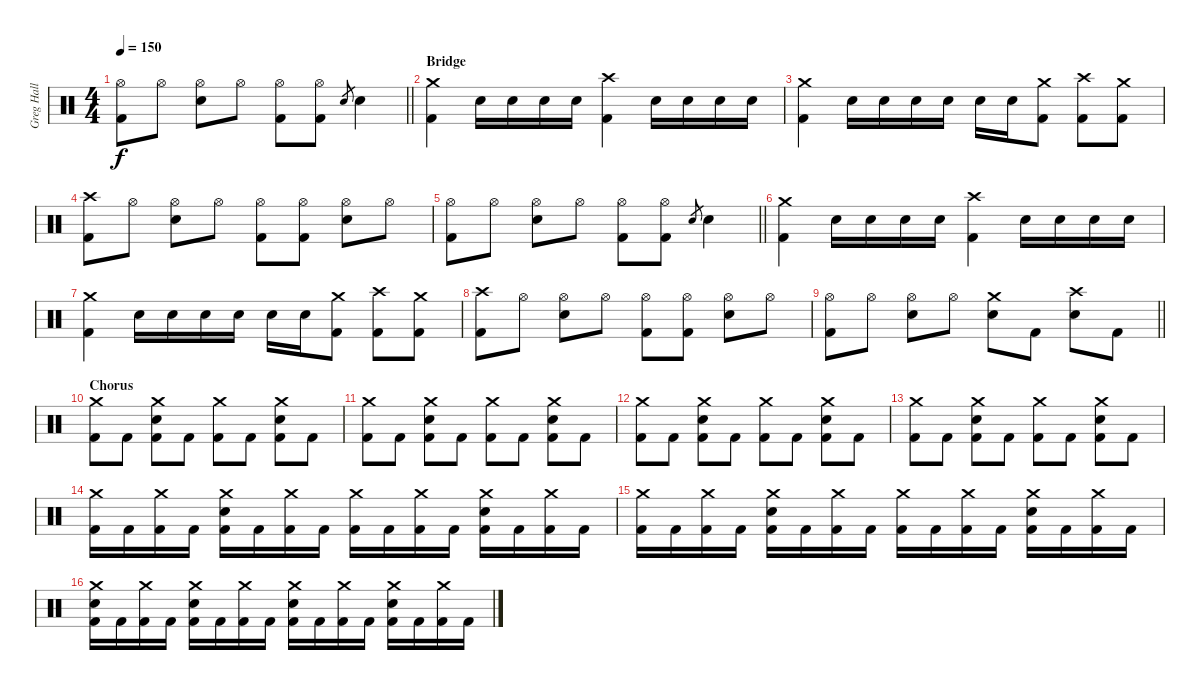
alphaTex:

\track ("Greg Hall" "Greg Hall") {instrument percussion}
\staff {score}
\articulation defaults
\ts (4 4)
\tempo 150
\clef neutral
\barLineRight lightlight
\ks c
("Hi-Hat (open)" "Kick (hit) 2").8{dy f} "Hi-Hat (open)".8 ("Hi-Hat (open)" "Electric Snare (hit)").8 "Hi-Hat (open)".8 ("Hi-Hat (open)" "Kick (hit) 2").8 ("Hi-Hat (open)" "Kick (hit) 2").8 "Electric Snare (hit)".8{gr} "Electric Snare (hit)".4 |
\section ("" "Bridge")
("Crash medium (hit)" "Kick (hit) 2").4 "Electric Snare (hit)".16 "Electric Snare (hit)".16 "Electric Snare (hit)".16 "Electric Snare (hit)".16 ("Crash high (hit)" "Kick (hit) 2").4 "Electric Snare (hit)".16 "Electric Snare (hit)".16 "Electric Snare (hit)".16 "Electric Snare (hit)".16 |
("Crash medium (hit)" "Kick (hit) 2").4 "Electric Snare (hit)".16 "Electric Snare (hit)".16 "Electric Snare (hit)".16 "Electric Snare (hit)".16 "Electric Snare (hit)".16 "Electric Snare (hit)".16 ("Crash medium (hit)" "Kick (hit) 2").8 ("Crash high (hit)" "Kick (hit) 2").8 ("Crash medium (hit)" "Kick (hit) 2").8 |
("Crash high (hit)" "Kick (hit) 2").8 "Hi-Hat (open)".8 ("Hi-Hat (open)" "Electric Snare (hit)").8 "Hi-Hat (open)".8 ("Hi-Hat (open)" "Kick (hit) 2").8 ("Hi-Hat (open)" "Kick (hit) 2").8 ("Hi-Hat (open)" "Electric Snare (hit)").8 "Hi-Hat (open)".8 |
\barLineRight lightlight
("Hi-Hat (open)" "Kick (hit) 2").8 "Hi-Hat (open)".8 ("Hi-Hat (open)" "Electric Snare (hit)").8 "Hi-Hat (open)".8 ("Hi-Hat (open)" "Kick (hit) 2").8 ("Hi-Hat (open)" "Kick (hit) 2").8 "Electric Snare (hit)".8{gr} "Electric Snare (hit)".4 |
("Crash medium (hit)" "Kick (hit) 2").4 "Electric Snare (hit)".16 "Electric Snare (hit)".16 "Electric Snare (hit)".16 "Electric Snare (hit)".16 ("Crash high (hit)" "Kick (hit) 2").4 "Electric Snare (hit)".16 "Electric Snare (hit)".16 "Electric Snare (hit)".16 "Electric Snare (hit)".16 |
("Crash medium (hit)" "Kick (hit) 2").4 "Electric Snare (hit)".16 "Electric Snare (hit)".16 "Electric Snare (hit)".16 "Electric Snare (hit)".16 "Electric Snare (hit)".16 "Electric Snare (hit)".16 ("Crash medium (hit)" "Kick (hit) 2").8 ("Crash high (hit)" "Kick (hit) 2").8 ("Crash medium (hit)" "Kick (hit) 2").8 |
("Crash high (hit)" "Kick (hit) 2").8 "Hi-Hat (open)".8 ("Hi-Hat (open)" "Electric Snare (hit)").8 "Hi-Hat (open)".8 ("Hi-Hat (open)" "Kick (hit) 2").8 ("Hi-Hat (open)" "Kick (hit) 2").8 ("Hi-Hat (open)" "Electric Snare (hit)").8 "Hi-Hat (open)".8 |
\barLineRight lightlight
("Hi-Hat (open)" "Kick (hit) 2").8 "Hi-Hat (open)".8 ("Hi-Hat (open)" "Electric Snare (hit)").8 "Hi-Hat (open)".8 ("Crash medium (hit)" "Electric Snare (hit)").8 "Kick (hit) 2".8 ("Crash high (hit)" "Electric Snare (hit)").8 "Kick (hit) 2".8 |
\section ("" "Chorus")
("Crash medium (hit)" "Kick (hit) 2").8 "Kick (hit) 2".8 ("Crash medium (hit)" "Electric Snare (hit)" "Kick (hit) 2").8 "Kick (hit) 2".8 ("Crash medium (hit)" "Kick (hit) 2").8 "Kick (hit) 2".8 ("Crash medium (hit)" "Electric Snare (hit)" "Kick (hit) 2").8 "Kick (hit) 2".8 |
("Crash medium (hit)" "Kick (hit) 2").8 "Kick (hit) 2".8 ("Crash medium (hit)" "Electric Snare (hit)" "Kick (hit) 2").8 "Kick (hit) 2".8 ("Crash medium (hit)" "Kick (hit) 2").8 "Kick (hit) 2".8 ("Crash medium (hit)" "Electric Snare (hit)" "Kick (hit) 2").8 "Kick (hit) 2".8 |
("Crash medium (hit)" "Kick (hit) 2").8 "Kick (hit) 2".8 ("Crash medium (hit)" "Electric Snare (hit)" "Kick (hit) 2").8 "Kick (hit) 2".8 ("Crash medium (hit)" "Kick (hit) 2").8 "Kick (hit) 2".8 ("Crash medium (hit)" "Electric Snare (hit)" "Kick (hit) 2").8 "Kick (hit) 2".8 |
("Crash medium (hit)" "Kick (hit) 2").8 "Kick (hit) 2".8 ("Crash medium (hit)" "Electric Snare (hit)" "Kick (hit) 2").8 "Kick (hit) 2".8 ("Crash medium (hit)" "Kick (hit) 2").8 "Kick (hit) 2".8 ("Crash medium (hit)" "Electric Snare (hit)" "Kick (hit) 2").8 "Kick (hit) 2".8 |
("Crash medium (hit)" "Kick (hit) 2").16 "Kick (hit) 2".16 ("Crash medium (hit)" "Kick (hit) 2").16 "Kick (hit) 2".16 ("Crash medium (hit)" "Electric Snare (hit)" "Kick (hit) 2").16 "Kick (hit) 2".16 ("Crash medium (hit)" "Kick (hit) 2").16 "Kick (hit) 2".16 ("Crash medium (hit)" "Kick (hit) 2").16 "Kick (hit) 2".16 ("Crash medium (hit)" "Kick (hit) 2").16 "Kick (hit) 2".16 ("Crash medium (hit)" "Electric Snare (hit)" "Kick (hit) 2").16 "Kick (hit) 2".16 ("Crash medium (hit)" "Kick (hit) 2").16 "Kick (hit) 2".16 |
("Crash medium (hit)" "Kick (hit) 2").16 "Kick (hit) 2".16 ("Crash medium (hit)" "Kick (hit) 2").16 "Kick (hit) 2".16 ("Crash medium (hit)" "Electric Snare (hit)" "Kick (hit) 2").16 "Kick (hit) 2".16 ("Crash medium (hit)" "Kick (hit) 2").16 "Kick (hit) 2".16 ("Crash medium (hit)" "Kick (hit) 2").16 "Kick (hit) 2".16 ("Crash medium (hit)" "Kick (hit) 2").16 "Kick (hit) 2".16 ("Crash medium (hit)" "Electric Snare (hit)" "Kick (hit) 2").16 "Kick (hit) 2".16 ("Crash medium (hit)" "Kick (hit) 2").16 "Kick (hit) 2".16 |
("Crash medium (hit)" "Electric Snare (hit)" "Kick (hit) 2").16 "Kick (hit) 2".16 ("Crash medium (hit)" "Kick (hit) 2").16 "Kick (hit) 2".16 ("Crash medium (hit)" "Electric Snare (hit)" "Kick (hit) 2").16 "Kick (hit) 2".16 ("Crash medium (hit)" "Kick (hit) 2").16 "Kick (hit) 2".16 ("Crash medium (hit)" "Electric Snare (hit)" "Kick (hit) 2").16 "Kick (hit) 2".16 ("Crash medium (hit)" "Kick (hit) 2").16 "Kick (hit) 2".16 ("Crash medium (hit)" "Electric Snare (hit)" "Kick (hit) 2").16 "Kick (hit) 2".16 ("Crash medium (hit)" "Kick (hit) 2").16 "Kick (hit) 2".16
